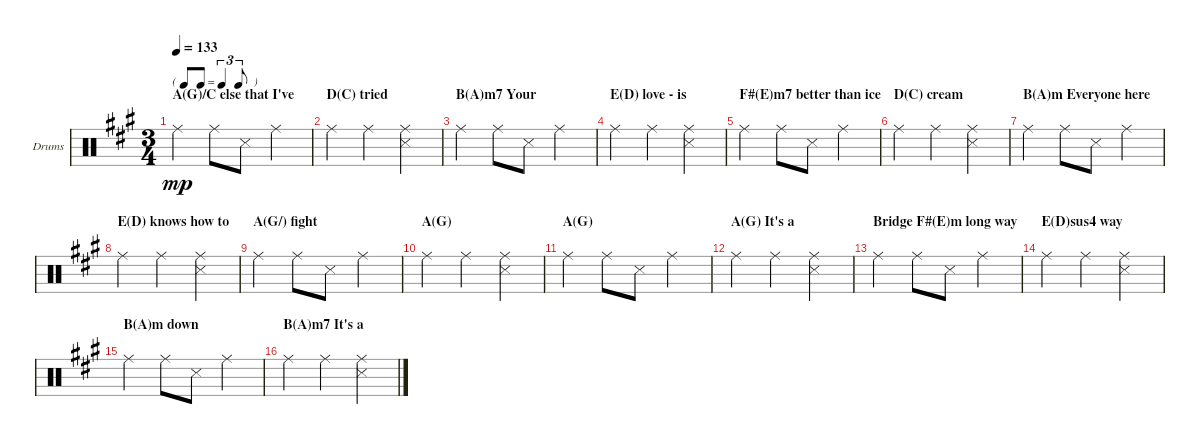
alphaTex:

\bracketExtendMode groupsimilarinstruments
\firstSystemTrackNameOrientation horizontal
\otherSystemsTrackNameOrientation horizontal
\track ("Drumkit" "Drums") {solo instrument percussion}
\staff {score}
\articulation defaults
\ts (3 4)
\tf triplet8th
\section ("" "A(G)/C else that I've")
\tempo 133
\clef neutral
\ks a "Ride (middle)".4{dy mp} "Ride (middle)".8 "Snare (side stick) 3".8 "Ride (middle)".4
|
\section ("" "D(C) tried")
"Ride (middle)".4 "Ride (middle)".4 ("Ride (middle)" "Snare (side stick) 3").4 |
\section ("" "B(A)m7 Your")
"Ride (middle)".4 "Ride (middle)".8 "Snare (side stick) 3".8 "Ride (middle)".4 |
\section ("" "E(D) love - is")
"Ride (middle)".4 "Ride (middle)".4 ("Ride (middle)" "Snare (side stick) 3").4 |
\section ("" "F#(E)m7 better than ice")
"Ride (middle)".4 "Ride (middle)".8 "Snare (side stick) 3".8 "Ride (middle)".4 |
\section ("" "D(C) cream")
"Ride (middle)".4 "Ride (middle)".4 ("Ride (middle)" "Snare (side stick) 3").4 |
\section ("" "B(A)m Everyone here")
"Ride (middle)".4 "Ride (middle)".8 "Snare (side stick) 3".8 "Ride (middle)".4 |
\section ("" "E(D) knows how to")
"Ride (middle)".4 "Ride (middle)".4 ("Ride (middle)" "Snare (side stick) 3").4 |
\section ("" "A(G/) fight")
"Ride (middle)".4 "Ride (middle)".8 "Snare (side stick) 3".8 "Ride (middle)".4 |
\section ("" "A(G)")
"Ride (middle)".4 "Ride (middle)".4 ("Ride (middle)" "Snare (side stick) 3").4 |
\section ("" "A(G)")
"Ride (middle)".4 "Ride (middle)".8 "Snare (side stick) 3".8 "Ride (middle)".4 |
\section ("" "A(G) It's a")
"Ride (middle)".4 "Ride (middle)".4 ("Ride (middle)" "Snare (side stick) 3").4 |
\section ("" "Bridge F#(E)m long way")
"Ride (middle)".4 "Ride (middle)".8 "Snare (side stick) 3".8 "Ride (middle)".4 |
\section ("" "E(D)sus4 way")
"Ride (middle)".4 "Ride (middle)".4 ("Ride (middle)" "Snare (side stick) 3").4 |
\section ("" "B(A)m down")
"Ride (middle)".4 "Ride (middle)".8 "Snare (side stick) 3".8 "Ride (middle)".4 |
\section ("" "B(A)m7 It's a")
"Ride (middle)".4 "Ride (middle)".4 ("Ride (middle)" "Snare (side stick) 3").4
